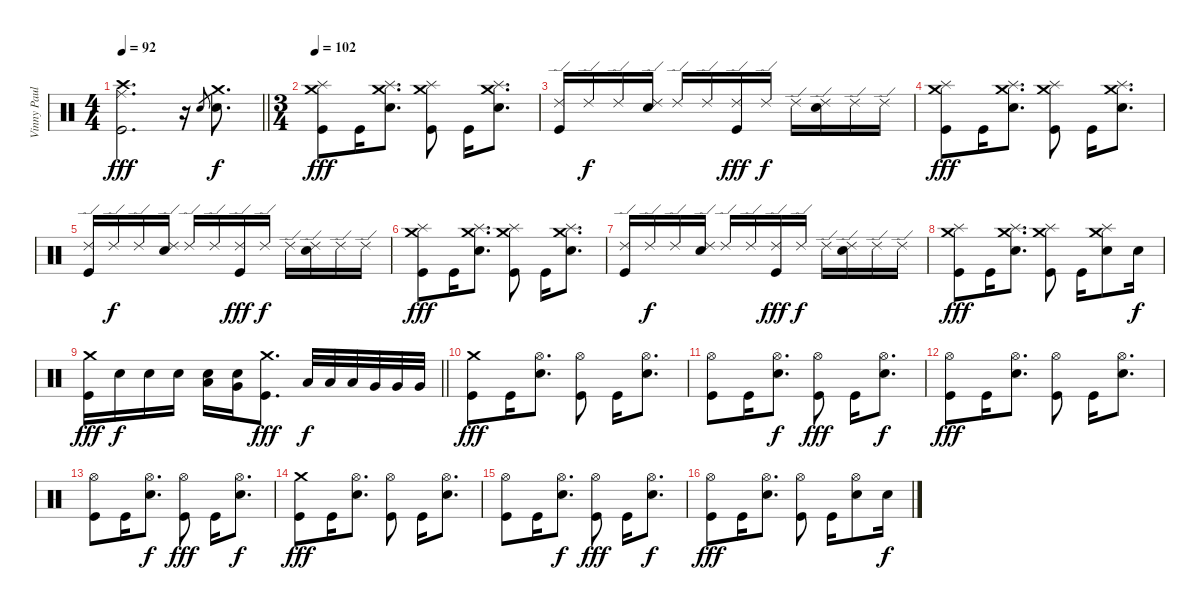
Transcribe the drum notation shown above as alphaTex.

\track ("Vinny Paul" "Vinny Paul") {instrument percussion}
\staff {score}
\articulation defaults
\ts (4 4)
\tempo 92
\clef neutral
\barLineRight lightlight
\ks c
("Crash high (hit)" "Ride (middle)" "Kick (hit)").2{d dy fff} r.16 "Electric Snare (hit)".8{gr} ("Crash medium (hit)" "Electric Snare (hit)").8{d dy f} |
\ts (3 4)
\section ("" "")
\tempo 102
("Crash medium (hit)" "Splash (hit)" "Kick (hit)").8{dy fff} "Kick (hit)".16 ("Crash medium (hit)" "Splash (hit)" "Electric Snare (hit)").8{d} ("Crash medium (hit)" "Splash (hit)" "Kick (hit)").8 "Kick (hit)".16 ("Crash medium (hit)" "Splash (hit)" "Electric Snare (hit)").8{d} |
("Ride (edge) 2" "Kick (hit)").16 "Ride (edge) 2".16{dy f} "Ride (edge) 2".16 ("Ride (edge) 2" "Electric Snare (hit)").16 "Ride (edge) 2".16 "Ride (edge) 2".16 ("Ride (edge) 2" "Kick (hit)").16{dy fff} "Ride (edge) 2".16{dy f} "Ride (edge) 2".16 ("Ride (edge) 2" "Electric Snare (hit)").16 "Ride (edge) 2".16 "Ride (edge) 2".16 |
("Crash medium (hit)" "Splash (hit)" "Kick (hit)").8{dy fff} "Kick (hit)".16 ("Crash medium (hit)" "Splash (hit)" "Electric Snare (hit)").8{d} ("Crash medium (hit)" "Splash (hit)" "Kick (hit)").8 "Kick (hit)".16 ("Crash medium (hit)" "Splash (hit)" "Electric Snare (hit)").8{d} |
("Ride (edge) 2" "Kick (hit)").16 "Ride (edge) 2".16{dy f} "Ride (edge) 2".16 ("Ride (edge) 2" "Electric Snare (hit)").16 "Ride (edge) 2".16 "Ride (edge) 2".16 ("Ride (edge) 2" "Kick (hit)").16{dy fff} "Ride (edge) 2".16{dy f} "Ride (edge) 2".16 ("Ride (edge) 2" "Electric Snare (hit)").16 "Ride (edge) 2".16 "Ride (edge) 2".16 |
("Crash medium (hit)" "Splash (hit)" "Kick (hit)").8{dy fff} "Kick (hit)".16 ("Crash medium (hit)" "Splash (hit)" "Electric Snare (hit)").8{d} ("Crash medium (hit)" "Splash (hit)" "Kick (hit)").8 "Kick (hit)".16 ("Crash medium (hit)" "Splash (hit)" "Electric Snare (hit)").8{d} |
("Ride (edge) 2" "Kick (hit)").16 "Ride (edge) 2".16{dy f} "Ride (edge) 2".16 ("Ride (edge) 2" "Electric Snare (hit)").16 "Ride (edge) 2".16 "Ride (edge) 2".16 ("Ride (edge) 2" "Kick (hit)").16{dy fff} "Ride (edge) 2".16{dy f} "Ride (edge) 2".16 ("Ride (edge) 2" "Electric Snare (hit)").16 "Ride (edge) 2".16 "Ride (edge) 2".16 |
("Crash medium (hit)" "Splash (hit)" "Kick (hit)").8{dy fff} "Kick (hit)".16 ("Crash medium (hit)" "Splash (hit)" "Electric Snare (hit)").8{d} ("Crash medium (hit)" "Splash (hit)" "Kick (hit)").8 "Kick (hit)".16 ("Crash medium (hit)" "Splash (hit)" "Electric Snare (hit)").8 "Electric Snare (hit)".16{dy f} |
\barLineRight lightlight
("Crash medium (hit)" "Kick (hit)").16{dy fff} "Electric Snare (hit)".16{dy f} "Electric Snare (hit)".16 "Electric Snare (hit)".16 ("Electric Snare (hit)" "Low Tom (hit)").16 ("Electric Snare (hit)" "Very Low Tom (hit)").16 ("Crash medium (hit)" "Kick (hit)").8{d dy fff} "Low Tom (hit)".32{dy f} "Low Tom (hit)".32 "Low Tom (hit)".32 "Very Low Tom (hit)".32 "Very Low Tom (hit)".32 "Very Low Tom (hit)".32 |
\section ("" "")
("Crash medium (hit)" "Kick (hit)").8{dy fff} "Kick (hit)".16 ("Hi-Hat (open)" "Electric Snare (hit)").8{d} ("Hi-Hat (open)" "Kick (hit)").8 "Kick (hit)".16 ("Hi-Hat (open)" "Electric Snare (hit)").8{d} |
("Hi-Hat (open)" "Kick (hit)").8 "Kick (hit)".16 ("Hi-Hat (open)" "Electric Snare (hit)").8{d dy f} ("Hi-Hat (open)" "Kick (hit)").8{dy fff} "Kick (hit)".16 ("Hi-Hat (open)" "Electric Snare (hit)").8{d dy f} |
("Hi-Hat (open)" "Kick (hit)").8{dy fff} "Kick (hit)".16 ("Hi-Hat (open)" "Electric Snare (hit)").8{d} ("Hi-Hat (open)" "Kick (hit)").8 "Kick (hit)".16 ("Hi-Hat (open)" "Electric Snare (hit)").8{d} |
("Hi-Hat (open)" "Kick (hit)").8 "Kick (hit)".16 ("Hi-Hat (open)" "Electric Snare (hit)").8{d dy f} ("Hi-Hat (open)" "Kick (hit)").8{dy fff} "Kick (hit)".16 ("Hi-Hat (open)" "Electric Snare (hit)").8{d dy f} |
("Crash medium (hit)" "Kick (hit)").8{dy fff} "Kick (hit)".16 ("Hi-Hat (open)" "Electric Snare (hit)").8{d} ("Hi-Hat (open)" "Kick (hit)").8 "Kick (hit)".16 ("Hi-Hat (open)" "Electric Snare (hit)").8{d} |
("Hi-Hat (open)" "Kick (hit)").8 "Kick (hit)".16 ("Hi-Hat (open)" "Electric Snare (hit)").8{d dy f} ("Hi-Hat (open)" "Kick (hit)").8{dy fff} "Kick (hit)".16 ("Hi-Hat (open)" "Electric Snare (hit)").8{d dy f} |
("Hi-Hat (open)" "Kick (hit)").8{dy fff} "Kick (hit)".16 ("Hi-Hat (open)" "Electric Snare (hit)").8{d} ("Hi-Hat (open)" "Kick (hit)").8 "Kick (hit)".16 ("Hi-Hat (open)" "Electric Snare (hit)").8 "Electric Snare (hit)".16{dy f}
